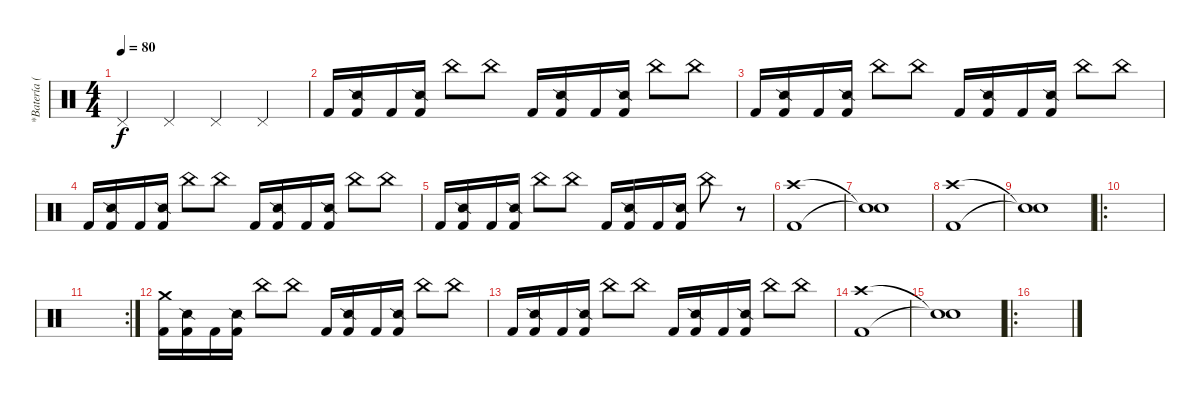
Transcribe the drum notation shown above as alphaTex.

\track ("*Batería (Toño)" "*Batería (") {instrument percussion}
\staff {score}
\articulation defaults
\ts (4 4)
\tempo 80
\clef neutral
\ks c "Pedal Hi-Hat (hit)".4{dy f} "Pedal Hi-Hat (hit)".4 "Pedal Hi-Hat (hit)".4 "Pedal Hi-Hat (hit)".4
|
"Kick (hit) 2".16 ("Snare (side stick) 2" "Kick (hit) 2").16 "Kick (hit) 2".16 ("Snare (side stick) 2" "Kick (hit) 2").16 "China (hit)".8 "China (hit)".8 "Kick (hit) 2".16 ("Snare (side stick) 2" "Kick (hit) 2").16 "Kick (hit) 2".16 ("Snare (side stick) 2" "Kick (hit) 2").16 "China (hit)".8 "China (hit)".8 |
"Kick (hit) 2".16 ("Snare (side stick) 2" "Kick (hit) 2").16 "Kick (hit) 2".16 ("Snare (side stick) 2" "Kick (hit) 2").16 "China (hit)".8 "China (hit)".8 "Kick (hit) 2".16 ("Snare (side stick) 2" "Kick (hit) 2").16 "Kick (hit) 2".16 ("Snare (side stick) 2" "Kick (hit) 2").16 "China (hit)".8 "China (hit)".8 |
"Kick (hit) 2".16 ("Snare (side stick) 2" "Kick (hit) 2").16 "Kick (hit) 2".16 ("Snare (side stick) 2" "Kick (hit) 2").16 "China (hit)".8 "China (hit)".8 "Kick (hit) 2".16 ("Snare (side stick) 2" "Kick (hit) 2").16 "Kick (hit) 2".16 ("Snare (side stick) 2" "Kick (hit) 2").16 "China (hit)".8 "China (hit)".8 |
"Kick (hit) 2".16 ("Snare (side stick) 2" "Kick (hit) 2").16 "Kick (hit) 2".16 ("Snare (side stick) 2" "Kick (hit) 2").16 "China (hit)".8 "China (hit)".8 "Kick (hit) 2".16 ("Snare (side stick) 2" "Kick (hit) 2").16 "Kick (hit) 2".16 ("Snare (side stick) 2" "Kick (hit) 2").16 "China (hit)".8 r.8 |
("Crash high (hit)" "Kick (hit) 2").1 |
("Snare (hit)"{t} "Snare (hit)"{t}).1 |
("Crash high (hit)" "Kick (hit) 2").1 |
("Snare (hit)"{t} "Snare (hit)"{t}).1 |
\ro
|
\rc 2
|
("Crash medium (hit)" "Kick (hit) 2").16 ("Snare (side stick) 2" "Kick (hit) 2").16 "Kick (hit) 2".16 ("Snare (side stick) 2" "Kick (hit) 2").16 "China (hit)".8 "China (hit)".8 "Kick (hit) 2".16 ("Snare (side stick) 2" "Kick (hit) 2").16 "Kick (hit) 2".16 ("Snare (side stick) 2" "Kick (hit) 2").16 "China (hit)".8 "China (hit)".8 |
"Kick (hit) 2".16 ("Snare (side stick) 2" "Kick (hit) 2").16 "Kick (hit) 2".16 ("Snare (side stick) 2" "Kick (hit) 2").16 "China (hit)".8 "China (hit)".8 "Kick (hit) 2".16 ("Snare (side stick) 2" "Kick (hit) 2").16 "Kick (hit) 2".16 ("Snare (side stick) 2" "Kick (hit) 2").16 "China (hit)".8 "China (hit)".8 |
("Crash high (hit)" "Kick (hit) 2").1 |
("Snare (hit)"{t} "Snare (hit)"{t}).1 |
\ro
